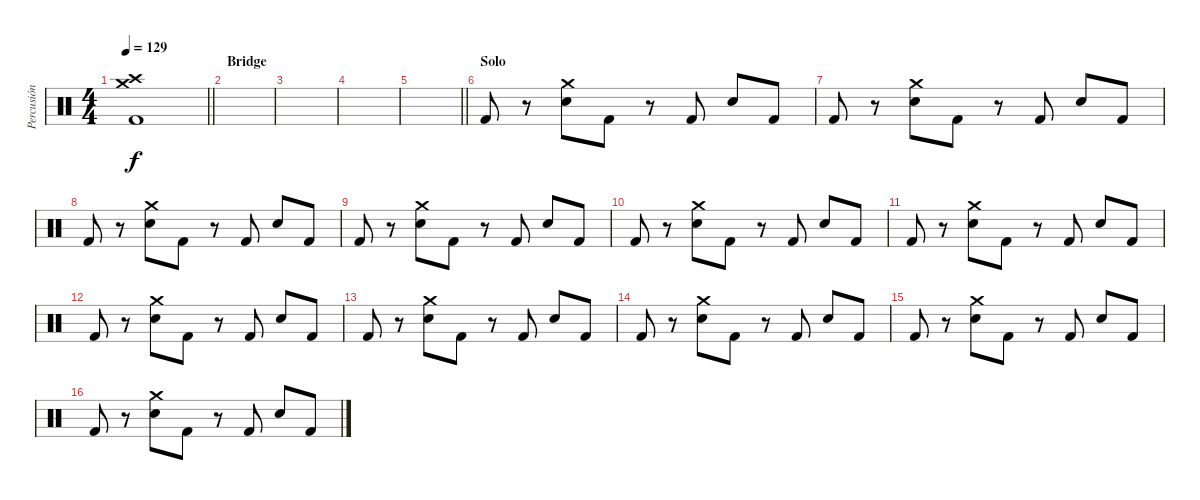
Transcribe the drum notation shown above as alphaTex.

\track ("Percusión" "Percusión") {instrument percussion}
\staff {score}
\articulation defaults
\ts (4 4)
\tempo 129
\clef neutral
\barLineRight lightlight
\ks c
("Crash high (hit)" "Crash medium (hit)" "Kick (hit) 2").1{dy f} |
\section ("" "Bridge")
|
|
|
\barLineRight lightlight
|
\section ("" "Solo")
"Kick (hit) 2".8 r.8 ("Crash medium (hit)" "Snare (hit) 2").8 "Kick (hit) 2".8 r.8 "Kick (hit) 2".8 "Snare (hit) 2".8 "Kick (hit) 2".8 |
"Kick (hit) 2".8 r.8 ("Crash medium (hit)" "Snare (hit) 2").8 "Kick (hit) 2".8 r.8 "Kick (hit) 2".8 "Snare (hit) 2".8 "Kick (hit) 2".8 |
"Kick (hit) 2".8 r.8 ("Crash medium (hit)" "Snare (hit) 2").8 "Kick (hit) 2".8 r.8 "Kick (hit) 2".8 "Snare (hit) 2".8 "Kick (hit) 2".8 |
"Kick (hit) 2".8 r.8 ("Crash medium (hit)" "Snare (hit) 2").8 "Kick (hit) 2".8 r.8 "Kick (hit) 2".8 "Snare (hit) 2".8 "Kick (hit) 2".8 |
"Kick (hit) 2".8 r.8 ("Crash medium (hit)" "Snare (hit) 2").8 "Kick (hit) 2".8 r.8 "Kick (hit) 2".8 "Snare (hit) 2".8 "Kick (hit) 2".8 |
"Kick (hit) 2".8 r.8 ("Crash medium (hit)" "Snare (hit) 2").8 "Kick (hit) 2".8 r.8 "Kick (hit) 2".8 "Snare (hit) 2".8 "Kick (hit) 2".8 |
"Kick (hit) 2".8 r.8 ("Crash medium (hit)" "Snare (hit) 2").8 "Kick (hit) 2".8 r.8 "Kick (hit) 2".8 "Snare (hit) 2".8 "Kick (hit) 2".8 |
"Kick (hit) 2".8 r.8 ("Crash medium (hit)" "Snare (hit) 2").8 "Kick (hit) 2".8 r.8 "Kick (hit) 2".8 "Snare (hit) 2".8 "Kick (hit) 2".8 |
"Kick (hit) 2".8 r.8 ("Crash medium (hit)" "Snare (hit) 2").8 "Kick (hit) 2".8 r.8 "Kick (hit) 2".8 "Snare (hit) 2".8 "Kick (hit) 2".8 |
"Kick (hit) 2".8 r.8 ("Crash medium (hit)" "Snare (hit) 2").8 "Kick (hit) 2".8 r.8 "Kick (hit) 2".8 "Snare (hit) 2".8 "Kick (hit) 2".8 |
"Kick (hit) 2".8 r.8 ("Crash medium (hit)" "Snare (hit) 2").8 "Kick (hit) 2".8 r.8 "Kick (hit) 2".8 "Snare (hit) 2".8 "Kick (hit) 2".8
